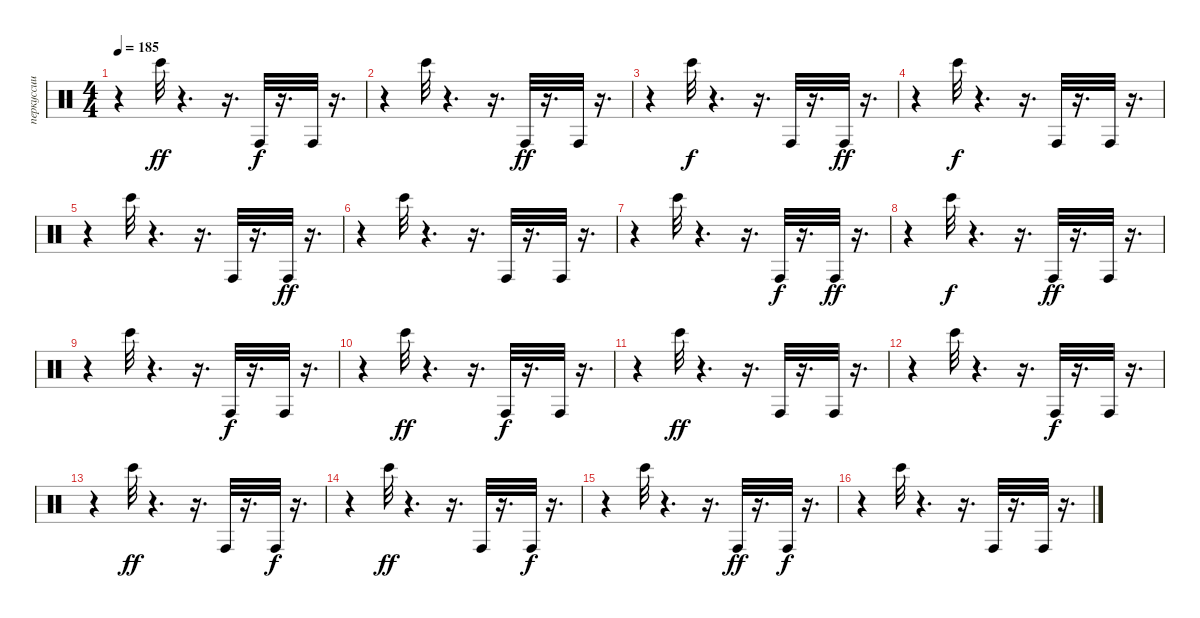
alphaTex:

\track ("перкуссии" "перкуссии") {instrument percussion}
\staff {score}
\articulation defaults
\ts (4 4)
\tempo 185
\clef neutral
\ks c
r.4{dy ff} "Bongo High (hit)".32 r.4{d} r.16{d} "Conga high (hit)".32{dy f} r.16{d} "Conga high (hit)".32 r.16{d} |
r.4 "Bongo High (hit)".32 r.4{d} r.16{d} "Conga high (hit)".32{dy ff} r.16{d} "Conga high (hit)".32 r.16{d} |
r.4 "Bongo High (hit)".32{dy f} r.4{d} r.16{d} "Conga high (hit)".32 r.16{d} "Conga high (hit)".32{dy ff} r.16{d} |
r.4 "Bongo High (hit)".32{dy f} r.4{d} r.16{d} "Conga high (hit)".32 r.16{d} "Conga high (hit)".32 r.16{d} |
r.4 "Bongo High (hit)".32 r.4{d} r.16{d} "Conga high (hit)".32 r.16{d} "Conga high (hit)".32{dy ff} r.16{d} |
r.4 "Bongo High (hit)".32 r.4{d} r.16{d} "Conga high (hit)".32 r.16{d} "Conga high (hit)".32 r.16{d} |
r.4 "Bongo High (hit)".32 r.4{d} r.16{d} "Conga high (hit)".32{dy f} r.16{d} "Conga high (hit)".32{dy ff} r.16{d} |
r.4 "Bongo High (hit)".32{dy f} r.4{d} r.16{d} "Conga high (hit)".32{dy ff} r.16{d} "Conga high (hit)".32 r.16{d} |
r.4 "Bongo High (hit)".32 r.4{d} r.16{d} "Conga high (hit)".32{dy f} r.16{d} "Conga high (hit)".32 r.16{d} |
r.4 "Bongo High (hit)".32{dy ff} r.4{d} r.16{d} "Conga high (hit)".32{dy f} r.16{d} "Conga high (hit)".32 r.16{d} |
r.4 "Bongo High (hit)".32{dy ff} r.4{d} r.16{d} "Conga high (hit)".32 r.16{d} "Conga high (hit)".32 r.16{d} |
r.4 "Bongo High (hit)".32 r.4{d} r.16{d} "Conga high (hit)".32{dy f} r.16{d} "Conga high (hit)".32 r.16{d} |
r.4 "Bongo High (hit)".32{dy ff} r.4{d} r.16{d} "Conga high (hit)".32 r.16{d} "Conga high (hit)".32{dy f} r.16{d} |
r.4 "Bongo High (hit)".32{dy ff} r.4{d} r.16{d} "Conga high (hit)".32 r.16{d} "Conga high (hit)".32{dy f} r.16{d} |
r.4 "Bongo High (hit)".32 r.4{d} r.16{d} "Conga high (hit)".32{dy ff} r.16{d} "Conga high (hit)".32{dy f} r.16{d} |
r.4 "Bongo High (hit)".32 r.4{d} r.16{d} "Conga high (hit)".32 r.16{d} "Conga high (hit)".32 r.16{d}
